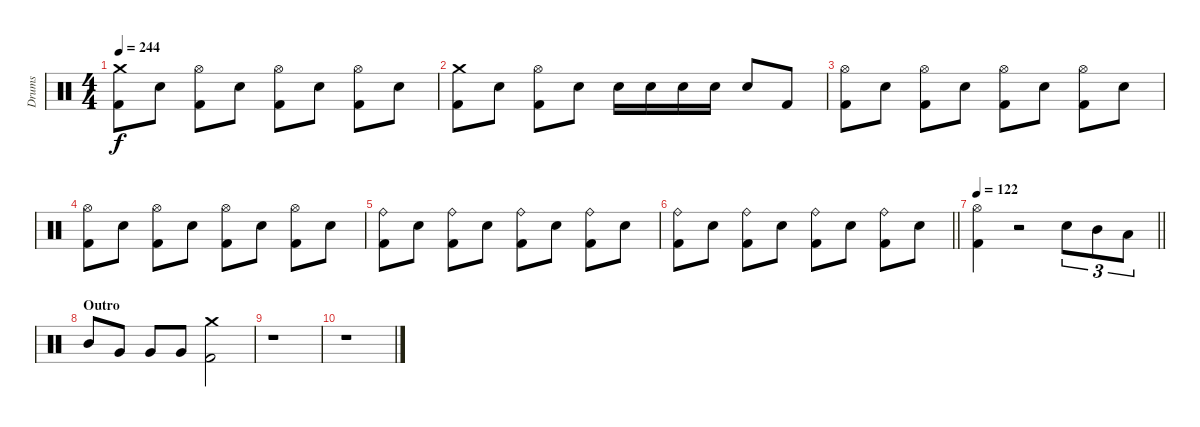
\track ("Drums" "Drums") {instrument percussion}
\staff
\articulation defaults
\ts (4 4)
\tempo 244
\clef neutral
\ks c
("Crash medium (hit)" "Kick (hit) 2").8{dy f} "Electric Snare (hit)".8 ("Hi-Hat (open)" "Kick (hit) 2").8 "Electric Snare (hit)".8 ("Hi-Hat (open)" "Kick (hit) 2").8 "Electric Snare (hit)".8 ("Hi-Hat (open)" "Kick (hit) 2").8 "Electric Snare (hit)".8 |
("Crash medium (hit)" "Kick (hit) 2").8 "Electric Snare (hit)".8 ("Hi-Hat (open)" "Kick (hit) 2").8 "Electric Snare (hit)".8 "Electric Snare (hit)".16 "Electric Snare (hit)".16 "Electric Snare (hit)".16 "Electric Snare (hit)".16 "Electric Snare (hit)".8 "Kick (hit) 2".8 |
("Hi-Hat (open)" "Kick (hit) 2").8 "Electric Snare (hit)".8 ("Hi-Hat (open)" "Kick (hit) 2").8 "Electric Snare (hit)".8 ("Hi-Hat (open)" "Kick (hit) 2").8 "Electric Snare (hit)".8 ("Hi-Hat (open)" "Kick (hit) 2").8 "Electric Snare (hit)".8 |
("Hi-Hat (open)" "Kick (hit) 2").8 "Electric Snare (hit)".8 ("Hi-Hat (open)" "Kick (hit) 2").8 "Electric Snare (hit)".8 ("Hi-Hat (open)" "Kick (hit) 2").8 "Electric Snare (hit)".8 ("Hi-Hat (open)" "Kick (hit) 2").8 "Electric Snare (hit)".8 |
("Ride (bell)" "Kick (hit) 2").8 "Electric Snare (hit)".8 ("Ride (bell)" "Kick (hit) 2").8 "Electric Snare (hit)".8 ("Ride (bell)" "Kick (hit) 2").8 "Electric Snare (hit)".8 ("Ride (bell)" "Kick (hit) 2").8 "Electric Snare (hit)".8 |
\barLineRight lightlight
("Ride (bell)" "Kick (hit) 2").8 "Electric Snare (hit)".8 ("Ride (bell)" "Kick (hit) 2").8 "Electric Snare (hit)".8 ("Ride (bell)" "Kick (hit) 2").8 "Electric Snare (hit)".8 ("Ride (bell)" "Kick (hit) 2").8 "Electric Snare (hit)".8 |
\tempo 122
\barLineRight lightlight
("Hi-Hat (open)" "Kick (hit) 2").4 r.2 "Electric Snare (hit)".8{tu (3 2)} "Mid Tom (hit)".8{tu (3 2)} "Low Tom (hit)".8{tu (3 2)} |
\section ("" "Outro")
"Mid Tom (hit)".8 "Very Low Tom (hit)".8 "Very Low Tom (hit)".8 "Very Low Tom (hit)".8 ("Crash medium (hit)" "Kick (hit) 2").2 |
r.1 |
r.1
